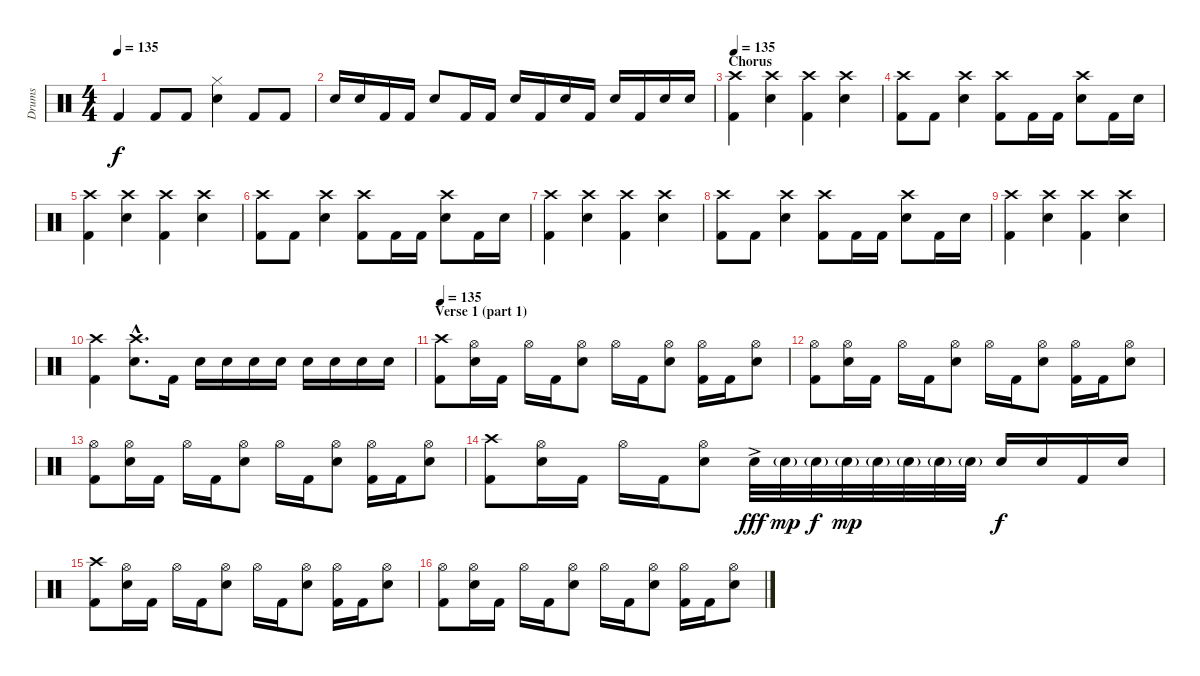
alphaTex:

\track ("Drums" "Drums") {instrument percussion}
\staff {score}
\articulation defaults
\ts (4 4)
\tempo 135
\clef neutral
\ks c "Kick (hit) 2".4{dy f} "Kick (hit) 2".8 "Kick (hit) 2".8
("Hi-Hat (closed)" "Electric Snare (hit)").4 "Kick (hit) 2".8 "Kick (hit) 2".8 |
"Electric Snare (hit)".16 "Electric Snare (hit)".16 "Kick (hit) 2".16 "Kick (hit) 2".16 "Electric Snare (hit)".8 "Kick (hit) 2".16 "Kick (hit) 2".16 "Electric Snare (hit)".16 "Kick (hit) 2".16 "Electric Snare (hit)".16 "Kick (hit) 2".16 "Electric Snare (hit)".16 "Kick (hit) 2".16 "Electric Snare (hit)".16 "Electric Snare (hit)".16 |
\section ("" "Chorus")
\tempo 135
("Crash high (hit)" "Kick (hit) 2").4 ("Crash high (hit)" "Electric Snare (hit)").4 ("Crash high (hit)" "Kick (hit) 2").4 ("Crash high (hit)" "Electric Snare (hit)").4 |
("Crash high (hit)" "Kick (hit) 2").8 "Kick (hit) 2".8 ("Crash high (hit)" "Electric Snare (hit)").4 ("Crash high (hit)" "Kick (hit) 2").8 "Kick (hit) 2".16 "Kick (hit) 2".16 ("Crash high (hit)" "Electric Snare (hit)").8 "Kick (hit) 2".16 "Electric Snare (hit)".16 |
("Crash high (hit)" "Kick (hit) 2").4 ("Crash high (hit)" "Electric Snare (hit)").4 ("Crash high (hit)" "Kick (hit) 2").4 ("Crash high (hit)" "Electric Snare (hit)").4 |
("Crash high (hit)" "Kick (hit) 2").8 "Kick (hit) 2".8 ("Crash high (hit)" "Electric Snare (hit)").4 ("Crash high (hit)" "Kick (hit) 2").8 "Kick (hit) 2".16 "Kick (hit) 2".16 ("Crash high (hit)" "Electric Snare (hit)").8 "Kick (hit) 2".16 "Electric Snare (hit)".16 |
("Crash high (hit)" "Kick (hit) 2").4 ("Crash high (hit)" "Electric Snare (hit)").4 ("Crash high (hit)" "Kick (hit) 2").4 ("Crash high (hit)" "Electric Snare (hit)").4 |
("Crash high (hit)" "Kick (hit) 2").8 "Kick (hit) 2".8 ("Crash high (hit)" "Electric Snare (hit)").4 ("Crash high (hit)" "Kick (hit) 2").8 "Kick (hit) 2".16 "Kick (hit) 2".16 ("Crash high (hit)" "Electric Snare (hit)").8 "Kick (hit) 2".16 "Electric Snare (hit)".16 |
("Crash high (hit)" "Kick (hit) 2").4 ("Crash high (hit)" "Electric Snare (hit)").4 ("Crash high (hit)" "Kick (hit) 2").4 ("Crash high (hit)" "Electric Snare (hit)").4 |
("Crash high (hit)" "Kick (hit) 2").4 ("Crash high (hit)"{hac} "Electric Snare (hit)"{hac}).8{d} "Kick (hit) 2".16 "Electric Snare (hit)".16 "Electric Snare (hit)".16 "Electric Snare (hit)".16 "Electric Snare (hit)".16 "Electric Snare (hit)".16 "Electric Snare (hit)".16 "Electric Snare (hit)".16 "Electric Snare (hit)".16 |
\section ("" "Verse 1 (part 1)")
\tempo 135
("Crash high (hit)" "Kick (hit) 2").8 ("Hi-Hat (open)" "Electric Snare (hit)").16 "Kick (hit) 2".16 "Hi-Hat (open)".16 "Kick (hit) 2".16 ("Hi-Hat (open)" "Electric Snare (hit)").8 "Hi-Hat (open)".16 "Kick (hit) 2".16 ("Hi-Hat (open)" "Electric Snare (hit)").8 ("Hi-Hat (open)" "Kick (hit) 2").16 "Kick (hit) 2".16 ("Hi-Hat (open)" "Electric Snare (hit)").8 |
("Hi-Hat (open)" "Kick (hit) 2").8 ("Hi-Hat (open)" "Electric Snare (hit)").16 "Kick (hit) 2".16 "Hi-Hat (open)".16 "Kick (hit) 2".16 ("Hi-Hat (open)" "Electric Snare (hit)").8 "Hi-Hat (open)".16 "Kick (hit) 2".16 ("Hi-Hat (open)" "Electric Snare (hit)").8 ("Hi-Hat (open)" "Kick (hit) 2").16 "Kick (hit) 2".16 ("Hi-Hat (open)" "Electric Snare (hit)").8 |
("Hi-Hat (open)" "Kick (hit) 2").8 ("Hi-Hat (open)" "Electric Snare (hit)").16 "Kick (hit) 2".16 "Hi-Hat (open)".16 "Kick (hit) 2".16 ("Hi-Hat (open)" "Electric Snare (hit)").8 "Hi-Hat (open)".16 "Kick (hit) 2".16 ("Hi-Hat (open)" "Electric Snare (hit)").8 ("Hi-Hat (open)" "Kick (hit) 2").16 "Kick (hit) 2".16 ("Hi-Hat (open)" "Electric Snare (hit)").8 |
("Crash high (hit)" "Kick (hit) 2").8 ("Hi-Hat (open)" "Electric Snare (hit)").16 "Kick (hit) 2".16 "Hi-Hat (open)".16 "Kick (hit) 2".16 ("Hi-Hat (open)" "Electric Snare (hit)").8 "Electric Snare (hit)"{ac}.32{dy fff} "Electric Snare (hit)"{g}.32{dy mp} "Electric Snare (hit)"{g}.32{dy f} "Electric Snare (hit)"{g}.32{dy mp} "Electric Snare (hit)"{g}.32 "Electric Snare (hit)"{g}.32 "Electric Snare (hit)"{g}.32 "Electric Snare (hit)"{g}.32 "Electric Snare (hit)".16{dy f} "Electric Snare (hit)".16 "Kick (hit) 2".16 "Electric Snare (hit)".16 |
("Crash high (hit)" "Kick (hit) 2").8 ("Hi-Hat (open)" "Electric Snare (hit)").16 "Kick (hit) 2".16 "Hi-Hat (open)".16 "Kick (hit) 2".16 ("Hi-Hat (open)" "Electric Snare (hit)").8 "Hi-Hat (open)".16 "Kick (hit) 2".16 ("Hi-Hat (open)" "Electric Snare (hit)").8 ("Hi-Hat (open)" "Kick (hit) 2").16 "Kick (hit) 2".16 ("Hi-Hat (open)" "Electric Snare (hit)").8 |
("Hi-Hat (open)" "Kick (hit) 2").8 ("Hi-Hat (open)" "Electric Snare (hit)").16 "Kick (hit) 2".16 "Hi-Hat (open)".16 "Kick (hit) 2".16 ("Hi-Hat (open)" "Electric Snare (hit)").8 "Hi-Hat (open)".16 "Kick (hit) 2".16 ("Hi-Hat (open)" "Electric Snare (hit)").8 ("Hi-Hat (open)" "Kick (hit) 2").16 "Kick (hit) 2".16 ("Hi-Hat (open)" "Electric Snare (hit)").8
